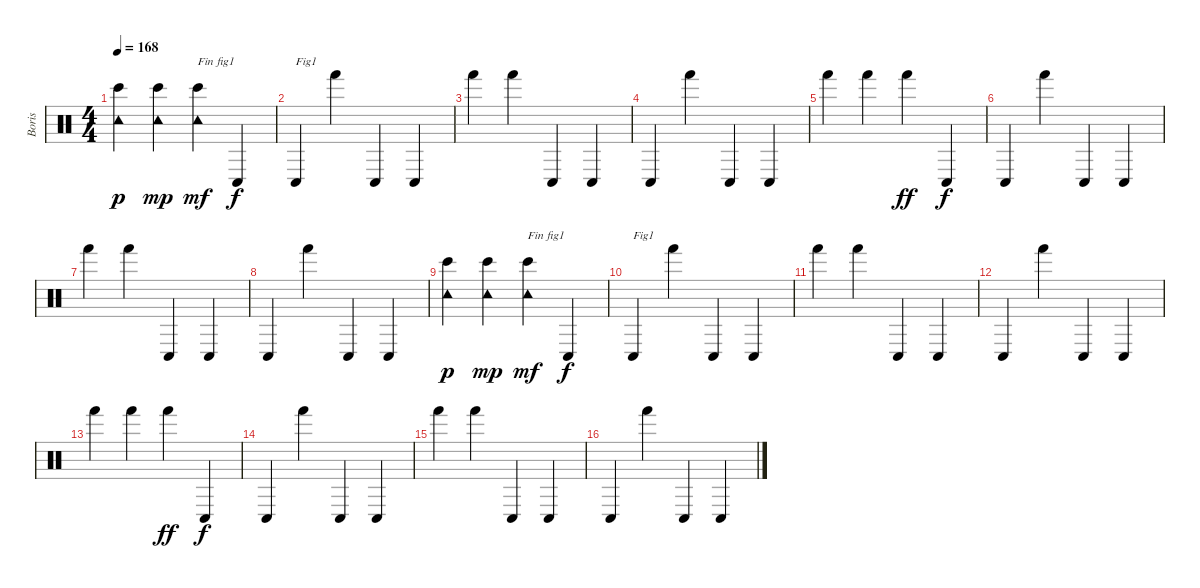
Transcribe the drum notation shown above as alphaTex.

\track ("Boris" "Boris") {instrument percussion}
\staff {score}
\articulation defaults
\ts (4 4)
\tempo 168
\clef neutral
\ks c
("Tambourine (hit)" "Bongo High (hit)").4{dy p} ("Tambourine (hit)" "Bongo High (hit)").4{dy mp} ("Tambourine (hit)" "Bongo High (hit)").4{txt "Fin fig1" dy mf} "Conga low (hit)".4{dy f} |
"Conga low (hit)".4{txt "Fig1"} "Hand (hit)".4 "Conga low (hit)".4 "Conga low (hit)".4 |
"Hand (hit)".4 "Hand (hit)".4 "Conga low (hit)".4 "Conga low (hit)".4 |
"Conga low (hit)".4 "Hand (hit)".4 "Conga low (hit)".4 "Conga low (hit)".4 |
"Hand (hit)".4 "Hand (hit)".4 "Hand (hit)".4{dy ff} "Conga low (hit)".4{dy f} |
"Conga low (hit)".4 "Hand (hit)".4 "Conga low (hit)".4 "Conga low (hit)".4 |
"Hand (hit)".4 "Hand (hit)".4 "Conga low (hit)".4 "Conga low (hit)".4 |
"Conga low (hit)".4 "Hand (hit)".4 "Conga low (hit)".4 "Conga low (hit)".4 |
("Tambourine (hit)" "Bongo High (hit)").4{dy p} ("Tambourine (hit)" "Bongo High (hit)").4{dy mp} ("Tambourine (hit)" "Bongo High (hit)").4{txt "Fin fig1" dy mf} "Conga low (hit)".4{dy f} |
"Conga low (hit)".4{txt "Fig1"} "Hand (hit)".4 "Conga low (hit)".4 "Conga low (hit)".4 |
"Hand (hit)".4 "Hand (hit)".4 "Conga low (hit)".4 "Conga low (hit)".4 |
"Conga low (hit)".4 "Hand (hit)".4 "Conga low (hit)".4 "Conga low (hit)".4 |
"Hand (hit)".4 "Hand (hit)".4 "Hand (hit)".4{dy ff} "Conga low (hit)".4{dy f} |
"Conga low (hit)".4 "Hand (hit)".4 "Conga low (hit)".4 "Conga low (hit)".4 |
"Hand (hit)".4 "Hand (hit)".4 "Conga low (hit)".4 "Conga low (hit)".4 |
"Conga low (hit)".4 "Hand (hit)".4 "Conga low (hit)".4 "Conga low (hit)".4
